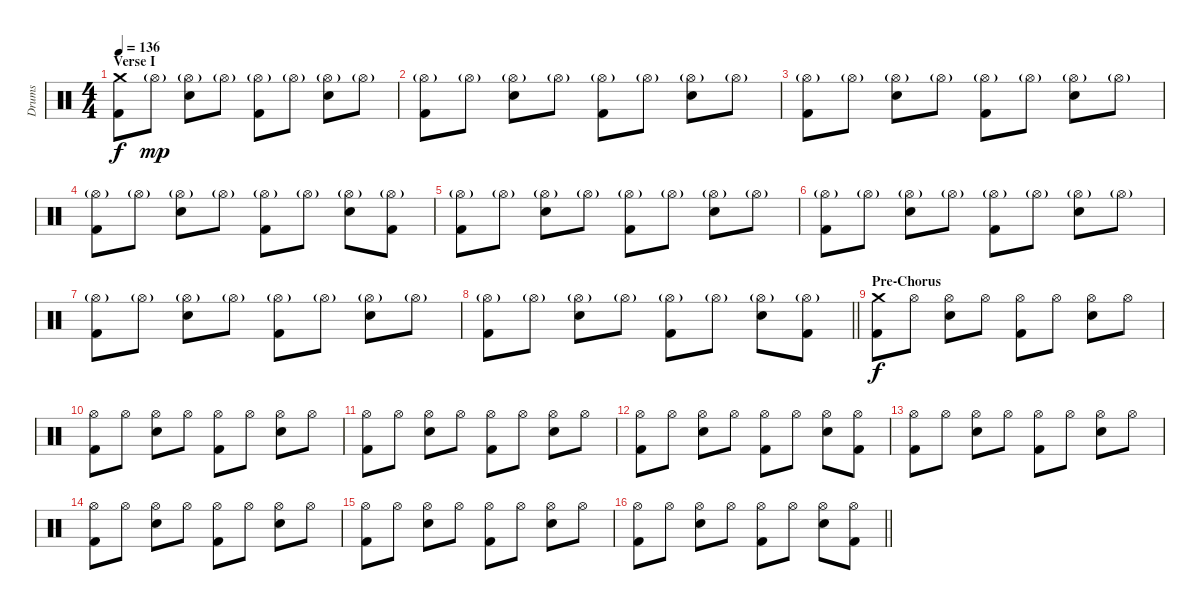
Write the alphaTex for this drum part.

\track ("Drums" "Drums") {instrument percussion}
\staff {score}
\articulation defaults
\ts (4 4)
\section ("" "Verse I")
\tempo 136
\clef neutral
\ks c
("Crash medium (hit)" "Kick (hit) 2").8{dy f} "Hi-Hat (open)"{g}.8{dy mp} ("Hi-Hat (open)"{g} "Electric Snare (hit)").8 "Hi-Hat (open)"{g}.8 ("Hi-Hat (open)"{g} "Kick (hit) 2").8 "Hi-Hat (open)"{g}.8 ("Hi-Hat (open)"{g} "Electric Snare (hit)").8 "Hi-Hat (open)"{g}.8 |
("Hi-Hat (open)"{g} "Kick (hit) 2").8 "Hi-Hat (open)"{g}.8 ("Hi-Hat (open)"{g} "Electric Snare (hit)").8 "Hi-Hat (open)"{g}.8 ("Hi-Hat (open)"{g} "Kick (hit) 2").8 "Hi-Hat (open)"{g}.8 ("Hi-Hat (open)"{g} "Electric Snare (hit)").8 "Hi-Hat (open)"{g}.8 |
("Hi-Hat (open)"{g} "Kick (hit) 2").8 "Hi-Hat (open)"{g}.8 ("Hi-Hat (open)"{g} "Electric Snare (hit)").8 "Hi-Hat (open)"{g}.8 ("Hi-Hat (open)"{g} "Kick (hit) 2").8 "Hi-Hat (open)"{g}.8 ("Hi-Hat (open)"{g} "Electric Snare (hit)").8 "Hi-Hat (open)"{g}.8 |
("Hi-Hat (open)"{g} "Kick (hit) 2").8 "Hi-Hat (open)"{g}.8 ("Hi-Hat (open)"{g} "Electric Snare (hit)").8 "Hi-Hat (open)"{g}.8 ("Hi-Hat (open)"{g} "Kick (hit) 2").8 "Hi-Hat (open)"{g}.8 ("Hi-Hat (open)"{g} "Electric Snare (hit)").8 ("Hi-Hat (open)"{g} "Kick (hit) 2").8 |
("Hi-Hat (open)"{g} "Kick (hit) 2").8 "Hi-Hat (open)"{g}.8 ("Hi-Hat (open)"{g} "Electric Snare (hit)").8 "Hi-Hat (open)"{g}.8 ("Hi-Hat (open)"{g} "Kick (hit) 2").8 "Hi-Hat (open)"{g}.8 ("Hi-Hat (open)"{g} "Electric Snare (hit)").8 "Hi-Hat (open)"{g}.8 |
("Hi-Hat (open)"{g} "Kick (hit) 2").8 "Hi-Hat (open)"{g}.8 ("Hi-Hat (open)"{g} "Electric Snare (hit)").8 "Hi-Hat (open)"{g}.8 ("Hi-Hat (open)"{g} "Kick (hit) 2").8 "Hi-Hat (open)"{g}.8 ("Hi-Hat (open)"{g} "Electric Snare (hit)").8 "Hi-Hat (open)"{g}.8 |
("Hi-Hat (open)"{g} "Kick (hit) 2").8 "Hi-Hat (open)"{g}.8 ("Hi-Hat (open)"{g} "Electric Snare (hit)").8 "Hi-Hat (open)"{g}.8 ("Hi-Hat (open)"{g} "Kick (hit) 2").8 "Hi-Hat (open)"{g}.8 ("Hi-Hat (open)"{g} "Electric Snare (hit)").8 "Hi-Hat (open)"{g}.8 |
\barLineRight lightlight
("Hi-Hat (open)"{g} "Kick (hit) 2").8 "Hi-Hat (open)"{g}.8 ("Hi-Hat (open)"{g} "Electric Snare (hit)").8 "Hi-Hat (open)"{g}.8 ("Hi-Hat (open)"{g} "Kick (hit) 2").8 "Hi-Hat (open)"{g}.8 ("Hi-Hat (open)"{g} "Electric Snare (hit)").8 ("Hi-Hat (open)"{g} "Kick (hit) 2").8 |
\section ("" "Pre-Chorus")
("Crash medium (hit)" "Kick (hit) 2").8{dy f} "Hi-Hat (open)".8 ("Hi-Hat (open)" "Electric Snare (hit)").8 "Hi-Hat (open)".8 ("Hi-Hat (open)" "Kick (hit) 2").8 "Hi-Hat (open)".8 ("Hi-Hat (open)" "Electric Snare (hit)").8 "Hi-Hat (open)".8 |
("Hi-Hat (open)" "Kick (hit) 2").8 "Hi-Hat (open)".8 ("Hi-Hat (open)" "Electric Snare (hit)").8 "Hi-Hat (open)".8 ("Hi-Hat (open)" "Kick (hit) 2").8 "Hi-Hat (open)".8 ("Hi-Hat (open)" "Electric Snare (hit)").8 "Hi-Hat (open)".8 |
("Hi-Hat (open)" "Kick (hit) 2").8 "Hi-Hat (open)".8 ("Hi-Hat (open)" "Electric Snare (hit)").8 "Hi-Hat (open)".8 ("Hi-Hat (open)" "Kick (hit) 2").8 "Hi-Hat (open)".8 ("Hi-Hat (open)" "Electric Snare (hit)").8 "Hi-Hat (open)".8 |
("Hi-Hat (open)" "Kick (hit) 2").8 "Hi-Hat (open)".8 ("Hi-Hat (open)" "Electric Snare (hit)").8 "Hi-Hat (open)".8 ("Hi-Hat (open)" "Kick (hit) 2").8 "Hi-Hat (open)".8 ("Hi-Hat (open)" "Electric Snare (hit)").8 ("Hi-Hat (open)" "Kick (hit) 2").8 |
("Hi-Hat (open)" "Kick (hit) 2").8 "Hi-Hat (open)".8 ("Hi-Hat (open)" "Electric Snare (hit)").8 "Hi-Hat (open)".8 ("Hi-Hat (open)" "Kick (hit) 2").8 "Hi-Hat (open)".8 ("Hi-Hat (open)" "Electric Snare (hit)").8 "Hi-Hat (open)".8 |
("Hi-Hat (open)" "Kick (hit) 2").8 "Hi-Hat (open)".8 ("Hi-Hat (open)" "Electric Snare (hit)").8 "Hi-Hat (open)".8 ("Hi-Hat (open)" "Kick (hit) 2").8 "Hi-Hat (open)".8 ("Hi-Hat (open)" "Electric Snare (hit)").8 "Hi-Hat (open)".8 |
("Hi-Hat (open)" "Kick (hit) 2").8 "Hi-Hat (open)".8 ("Hi-Hat (open)" "Electric Snare (hit)").8 "Hi-Hat (open)".8 ("Hi-Hat (open)" "Kick (hit) 2").8 "Hi-Hat (open)".8 ("Hi-Hat (open)" "Electric Snare (hit)").8 "Hi-Hat (open)".8 |
\barLineRight lightlight
("Hi-Hat (open)" "Kick (hit) 2").8 "Hi-Hat (open)".8 ("Hi-Hat (open)" "Electric Snare (hit)").8 "Hi-Hat (open)".8 ("Hi-Hat (open)" "Kick (hit) 2").8 "Hi-Hat (open)".8 ("Hi-Hat (open)" "Electric Snare (hit)").8 ("Hi-Hat (open)" "Kick (hit) 2").8
